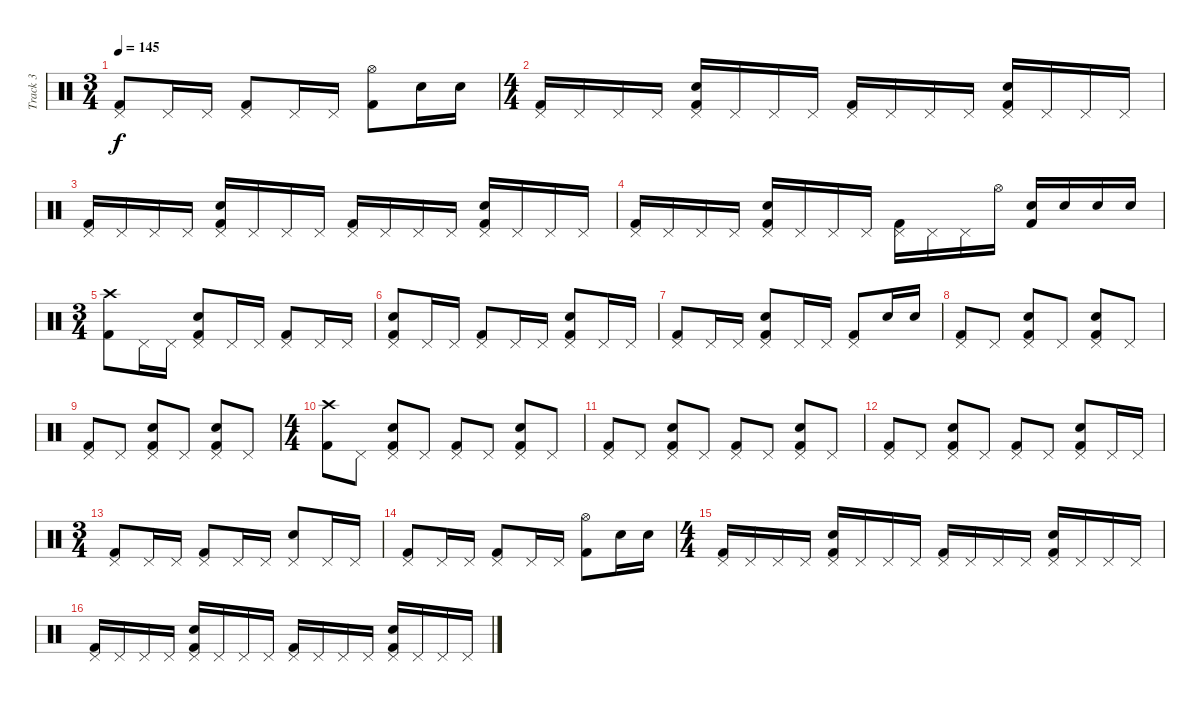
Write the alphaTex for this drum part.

\track ("Track 3" "Track 3") {instrument percussion}
\staff {score}
\articulation defaults
\ts (3 4)
\tempo 145
\clef neutral
\ks c
("Pedal Hi-Hat (hit)" "Kick (hit) 2").8{dy f} "Pedal Hi-Hat (hit)".16 "Pedal Hi-Hat (hit)".16 ("Pedal Hi-Hat (hit)" "Kick (hit) 2").8 "Pedal Hi-Hat (hit)".16 "Pedal Hi-Hat (hit)".16 ("Hi-Hat (open)" "Kick (hit) 2").8 "Electric Snare (hit)".16 "Electric Snare (hit)".16 |
\ts (4 4)
("Pedal Hi-Hat (hit)" "Kick (hit) 2").16 "Pedal Hi-Hat (hit)".16 "Pedal Hi-Hat (hit)".16 "Pedal Hi-Hat (hit)".16 ("Pedal Hi-Hat (hit)" "Kick (hit) 2" "Electric Snare (hit)").16 "Pedal Hi-Hat (hit)".16 "Pedal Hi-Hat (hit)".16 "Pedal Hi-Hat (hit)".16 ("Pedal Hi-Hat (hit)" "Kick (hit) 2").16 "Pedal Hi-Hat (hit)".16 "Pedal Hi-Hat (hit)".16 "Pedal Hi-Hat (hit)".16 ("Pedal Hi-Hat (hit)" "Kick (hit) 2" "Electric Snare (hit)").16 "Pedal Hi-Hat (hit)".16 "Pedal Hi-Hat (hit)".16 "Pedal Hi-Hat (hit)".16 |
("Pedal Hi-Hat (hit)" "Kick (hit) 2").16 "Pedal Hi-Hat (hit)".16 "Pedal Hi-Hat (hit)".16 "Pedal Hi-Hat (hit)".16 ("Pedal Hi-Hat (hit)" "Kick (hit) 2" "Electric Snare (hit)").16 "Pedal Hi-Hat (hit)".16 "Pedal Hi-Hat (hit)".16 "Pedal Hi-Hat (hit)".16 ("Pedal Hi-Hat (hit)" "Kick (hit) 2").16 "Pedal Hi-Hat (hit)".16 "Pedal Hi-Hat (hit)".16 "Pedal Hi-Hat (hit)".16 ("Pedal Hi-Hat (hit)" "Kick (hit) 2" "Electric Snare (hit)").16 "Pedal Hi-Hat (hit)".16 "Pedal Hi-Hat (hit)".16 "Pedal Hi-Hat (hit)".16 |
("Pedal Hi-Hat (hit)" "Kick (hit) 2").16 "Pedal Hi-Hat (hit)".16 "Pedal Hi-Hat (hit)".16 "Pedal Hi-Hat (hit)".16 ("Pedal Hi-Hat (hit)" "Kick (hit) 2" "Electric Snare (hit)").16 "Pedal Hi-Hat (hit)".16 "Pedal Hi-Hat (hit)".16 "Pedal Hi-Hat (hit)".16 ("Pedal Hi-Hat (hit)" "Kick (hit) 2").16 "Pedal Hi-Hat (hit)".16 "Pedal Hi-Hat (hit)".16 "Hi-Hat (open)".16 ("Kick (hit) 2" "Electric Snare (hit)").16 "Electric Snare (hit)".16 "Electric Snare (hit)".16 "Electric Snare (hit)".16 |
\ts (3 4)
("Crash high (hit)" "Kick (hit) 2").8 "Pedal Hi-Hat (hit)".16 "Pedal Hi-Hat (hit)".16 ("Pedal Hi-Hat (hit)" "Kick (hit) 2" "Electric Snare (hit)").8 "Pedal Hi-Hat (hit)".16 "Pedal Hi-Hat (hit)".16 ("Pedal Hi-Hat (hit)" "Kick (hit) 2").8 "Pedal Hi-Hat (hit)".16 "Pedal Hi-Hat (hit)".16 |
("Pedal Hi-Hat (hit)" "Kick (hit) 2" "Electric Snare (hit)").8 "Pedal Hi-Hat (hit)".16 "Pedal Hi-Hat (hit)".16 ("Pedal Hi-Hat (hit)" "Kick (hit) 2").8 "Pedal Hi-Hat (hit)".16 "Pedal Hi-Hat (hit)".16 ("Pedal Hi-Hat (hit)" "Kick (hit) 2" "Electric Snare (hit)").8 "Pedal Hi-Hat (hit)".16 "Pedal Hi-Hat (hit)".16 |
("Pedal Hi-Hat (hit)" "Kick (hit) 2").8 "Pedal Hi-Hat (hit)".16 "Pedal Hi-Hat (hit)".16 ("Pedal Hi-Hat (hit)" "Kick (hit) 2" "Electric Snare (hit)").8 "Pedal Hi-Hat (hit)".16 "Pedal Hi-Hat (hit)".16 ("Kick (hit) 2" "Pedal Hi-Hat (hit)").8 "Electric Snare (hit)".16 "Electric Snare (hit)".16 |
("Pedal Hi-Hat (hit)" "Kick (hit) 2").8 "Pedal Hi-Hat (hit)".8 ("Pedal Hi-Hat (hit)" "Kick (hit) 2" "Electric Snare (hit)").8 "Pedal Hi-Hat (hit)".8 ("Kick (hit) 2" "Electric Snare (hit)" "Pedal Hi-Hat (hit)").8 "Pedal Hi-Hat (hit)".8 |
("Pedal Hi-Hat (hit)" "Kick (hit) 2").8 "Pedal Hi-Hat (hit)".8 ("Pedal Hi-Hat (hit)" "Kick (hit) 2" "Electric Snare (hit)").8 "Pedal Hi-Hat (hit)".8 ("Kick (hit) 2" "Electric Snare (hit)" "Pedal Hi-Hat (hit)").8 "Pedal Hi-Hat (hit)".8 |
\ts (4 4)
("Crash high (hit)" "Kick (hit) 2").8 "Pedal Hi-Hat (hit)".8 ("Pedal Hi-Hat (hit)" "Kick (hit) 2" "Electric Snare (hit)").8 "Pedal Hi-Hat (hit)".8 ("Pedal Hi-Hat (hit)" "Kick (hit) 2").8 "Pedal Hi-Hat (hit)".8 ("Pedal Hi-Hat (hit)" "Kick (hit) 2" "Electric Snare (hit)").8 "Pedal Hi-Hat (hit)".8 |
("Pedal Hi-Hat (hit)" "Kick (hit) 2").8 "Pedal Hi-Hat (hit)".8 ("Pedal Hi-Hat (hit)" "Kick (hit) 2" "Electric Snare (hit)").8 "Pedal Hi-Hat (hit)".8 ("Pedal Hi-Hat (hit)" "Kick (hit) 2").8 "Pedal Hi-Hat (hit)".8 ("Pedal Hi-Hat (hit)" "Kick (hit) 2" "Electric Snare (hit)").8 "Pedal Hi-Hat (hit)".8 |
("Pedal Hi-Hat (hit)" "Kick (hit) 2").8 "Pedal Hi-Hat (hit)".8 ("Pedal Hi-Hat (hit)" "Kick (hit) 2" "Electric Snare (hit)").8 "Pedal Hi-Hat (hit)".8 ("Pedal Hi-Hat (hit)" "Kick (hit) 2").8 "Pedal Hi-Hat (hit)".8 ("Pedal Hi-Hat (hit)" "Kick (hit) 2" "Electric Snare (hit)").8 "Pedal Hi-Hat (hit)".16 "Pedal Hi-Hat (hit)".16 |
\ts (3 4)
("Pedal Hi-Hat (hit)" "Kick (hit) 2").8 "Pedal Hi-Hat (hit)".16 "Pedal Hi-Hat (hit)".16 ("Pedal Hi-Hat (hit)" "Kick (hit) 2").8 "Pedal Hi-Hat (hit)".16 "Pedal Hi-Hat (hit)".16 ("Pedal Hi-Hat (hit)" "Electric Snare (hit)").8 "Pedal Hi-Hat (hit)".16 "Pedal Hi-Hat (hit)".16 |
("Pedal Hi-Hat (hit)" "Kick (hit) 2").8 "Pedal Hi-Hat (hit)".16 "Pedal Hi-Hat (hit)".16 ("Pedal Hi-Hat (hit)" "Kick (hit) 2").8 "Pedal Hi-Hat (hit)".16 "Pedal Hi-Hat (hit)".16 ("Hi-Hat (open)" "Kick (hit) 2").8 "Electric Snare (hit)".16 "Electric Snare (hit)".16 |
\ts (4 4)
("Pedal Hi-Hat (hit)" "Kick (hit) 2").16 "Pedal Hi-Hat (hit)".16 "Pedal Hi-Hat (hit)".16 "Pedal Hi-Hat (hit)".16 ("Pedal Hi-Hat (hit)" "Kick (hit) 2" "Electric Snare (hit)").16 "Pedal Hi-Hat (hit)".16 "Pedal Hi-Hat (hit)".16 "Pedal Hi-Hat (hit)".16 ("Pedal Hi-Hat (hit)" "Kick (hit) 2").16 "Pedal Hi-Hat (hit)".16 "Pedal Hi-Hat (hit)".16 "Pedal Hi-Hat (hit)".16 ("Pedal Hi-Hat (hit)" "Kick (hit) 2" "Electric Snare (hit)").16 "Pedal Hi-Hat (hit)".16 "Pedal Hi-Hat (hit)".16 "Pedal Hi-Hat (hit)".16 |
("Pedal Hi-Hat (hit)" "Kick (hit) 2").16 "Pedal Hi-Hat (hit)".16 "Pedal Hi-Hat (hit)".16 "Pedal Hi-Hat (hit)".16 ("Pedal Hi-Hat (hit)" "Kick (hit) 2" "Electric Snare (hit)").16 "Pedal Hi-Hat (hit)".16 "Pedal Hi-Hat (hit)".16 "Pedal Hi-Hat (hit)".16 ("Pedal Hi-Hat (hit)" "Kick (hit) 2").16 "Pedal Hi-Hat (hit)".16 "Pedal Hi-Hat (hit)".16 "Pedal Hi-Hat (hit)".16 ("Pedal Hi-Hat (hit)" "Kick (hit) 2" "Electric Snare (hit)").16 "Pedal Hi-Hat (hit)".16 "Pedal Hi-Hat (hit)".16 "Pedal Hi-Hat (hit)".16
